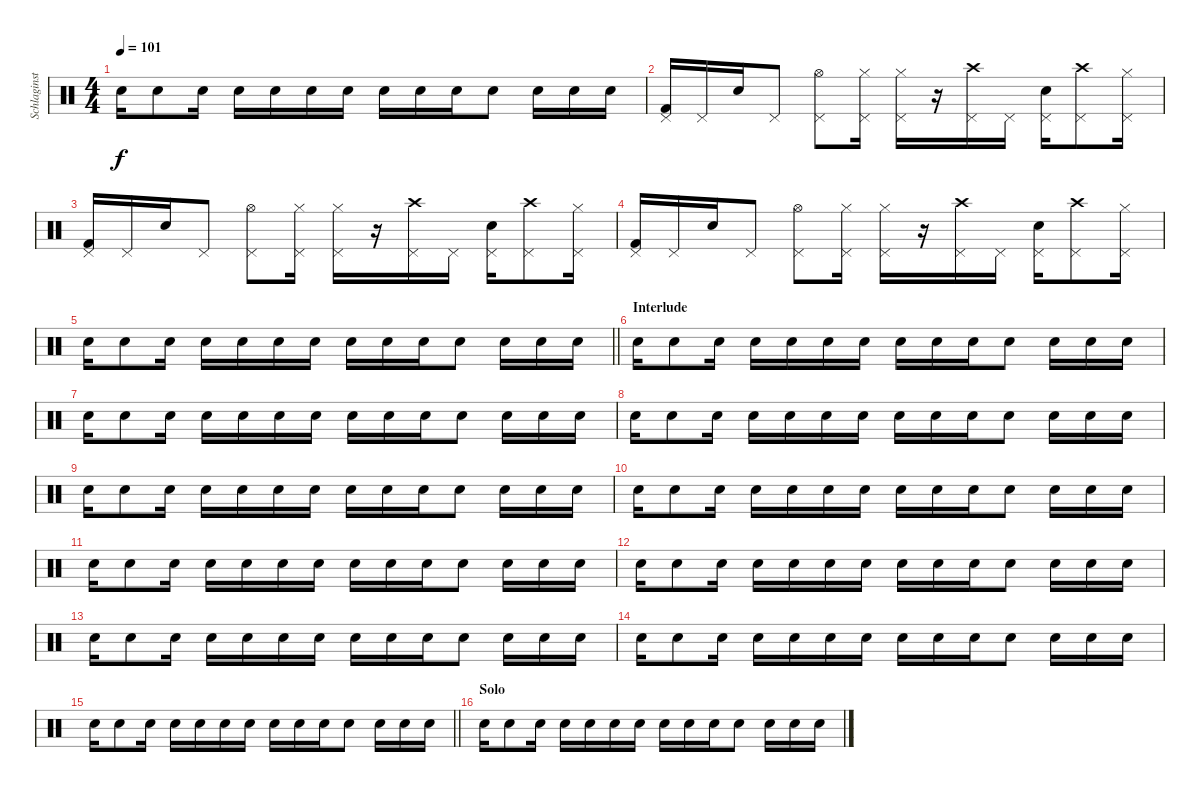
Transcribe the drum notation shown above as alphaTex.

\track ("Schlaginstrumente - Auswahl" "Schlaginst") {instrument percussion}
\staff {score}
\articulation defaults
\ts (4 4)
\tempo 101
\clef neutral
\ks c "Electric Snare (hit)".16{dy f} "Electric Snare (hit)".8 "Electric Snare (hit)".16 "Electric Snare (hit)".16 "Electric Snare (hit)".16 "Electric Snare (hit)".16 "Electric Snare (hit)".16 "Electric Snare (hit)".16 "Electric Snare (hit)".16 "Electric Snare (hit)".16 "Electric Snare (hit)".8 "Electric Snare (hit)".16 "Electric Snare (hit)".16 "Electric Snare (hit)".16
|
("Kick (hit) 2" "Pedal Hi-Hat (hit)").16 "Pedal Hi-Hat (hit)".16 "Electric Snare (hit)".16 "Pedal Hi-Hat (hit)".8 ("Hi-Hat (open)" "Pedal Hi-Hat (hit)").8 ("Hi-Hat (closed)" "Pedal Hi-Hat (hit)").16 ("Hi-Hat (closed)" "Pedal Hi-Hat (hit)").16 r.16 ("Crash high (hit)" "Pedal Hi-Hat (hit)").16 "Pedal Hi-Hat (hit)".16 ("Snare (hit) 2" "Pedal Hi-Hat (hit)").16 ("Crash high (hit)" "Pedal Hi-Hat (hit)").8 ("Hi-Hat (closed)" "Pedal Hi-Hat (hit)").16 |
("Kick (hit) 2" "Pedal Hi-Hat (hit)").16 "Pedal Hi-Hat (hit)".16 "Electric Snare (hit)".16 "Pedal Hi-Hat (hit)".8 ("Hi-Hat (open)" "Pedal Hi-Hat (hit)").8 ("Hi-Hat (closed)" "Pedal Hi-Hat (hit)").16 ("Hi-Hat (closed)" "Pedal Hi-Hat (hit)").16 r.16 ("Crash high (hit)" "Pedal Hi-Hat (hit)").16 "Pedal Hi-Hat (hit)".16 ("Snare (hit) 2" "Pedal Hi-Hat (hit)").16 ("Crash high (hit)" "Pedal Hi-Hat (hit)").8 ("Hi-Hat (closed)" "Pedal Hi-Hat (hit)").16 |
("Kick (hit) 2" "Pedal Hi-Hat (hit)").16 "Pedal Hi-Hat (hit)".16 "Electric Snare (hit)".16 "Pedal Hi-Hat (hit)".8 ("Hi-Hat (open)" "Pedal Hi-Hat (hit)").8 ("Hi-Hat (closed)" "Pedal Hi-Hat (hit)").16 ("Hi-Hat (closed)" "Pedal Hi-Hat (hit)").16 r.16 ("Crash high (hit)" "Pedal Hi-Hat (hit)").16 "Pedal Hi-Hat (hit)".16 ("Snare (hit) 2" "Pedal Hi-Hat (hit)").16 ("Crash high (hit)" "Pedal Hi-Hat (hit)").8 ("Hi-Hat (closed)" "Pedal Hi-Hat (hit)").16 |
\barLineRight lightlight "Electric Snare (hit)".16 "Electric Snare (hit)".8 "Electric Snare (hit)".16 "Electric Snare (hit)".16 "Electric Snare (hit)".16 "Electric Snare (hit)".16 "Electric Snare (hit)".16 "Electric Snare (hit)".16 "Electric Snare (hit)".16 "Electric Snare (hit)".16 "Electric Snare (hit)".8 "Electric Snare (hit)".16 "Electric Snare (hit)".16 "Electric Snare (hit)".16
|
\section ("" "Interlude")
"Electric Snare (hit)".16 "Electric Snare (hit)".8 "Electric Snare (hit)".16 "Electric Snare (hit)".16 "Electric Snare (hit)".16 "Electric Snare (hit)".16 "Electric Snare (hit)".16 "Electric Snare (hit)".16 "Electric Snare (hit)".16 "Electric Snare (hit)".16 "Electric Snare (hit)".8 "Electric Snare (hit)".16 "Electric Snare (hit)".16 "Electric Snare (hit)".16 |
"Electric Snare (hit)".16 "Electric Snare (hit)".8 "Electric Snare (hit)".16 "Electric Snare (hit)".16 "Electric Snare (hit)".16 "Electric Snare (hit)".16 "Electric Snare (hit)".16 "Electric Snare (hit)".16 "Electric Snare (hit)".16 "Electric Snare (hit)".16 "Electric Snare (hit)".8 "Electric Snare (hit)".16 "Electric Snare (hit)".16 "Electric Snare (hit)".16 |
"Electric Snare (hit)".16 "Electric Snare (hit)".8 "Electric Snare (hit)".16 "Electric Snare (hit)".16 "Electric Snare (hit)".16 "Electric Snare (hit)".16 "Electric Snare (hit)".16 "Electric Snare (hit)".16 "Electric Snare (hit)".16 "Electric Snare (hit)".16 "Electric Snare (hit)".8 "Electric Snare (hit)".16 "Electric Snare (hit)".16 "Electric Snare (hit)".16 |
"Electric Snare (hit)".16 "Electric Snare (hit)".8 "Electric Snare (hit)".16 "Electric Snare (hit)".16 "Electric Snare (hit)".16 "Electric Snare (hit)".16 "Electric Snare (hit)".16 "Electric Snare (hit)".16 "Electric Snare (hit)".16 "Electric Snare (hit)".16 "Electric Snare (hit)".8 "Electric Snare (hit)".16 "Electric Snare (hit)".16 "Electric Snare (hit)".16 |
"Electric Snare (hit)".16 "Electric Snare (hit)".8 "Electric Snare (hit)".16 "Electric Snare (hit)".16 "Electric Snare (hit)".16 "Electric Snare (hit)".16 "Electric Snare (hit)".16 "Electric Snare (hit)".16 "Electric Snare (hit)".16 "Electric Snare (hit)".16 "Electric Snare (hit)".8 "Electric Snare (hit)".16 "Electric Snare (hit)".16 "Electric Snare (hit)".16 |
"Electric Snare (hit)".16 "Electric Snare (hit)".8 "Electric Snare (hit)".16 "Electric Snare (hit)".16 "Electric Snare (hit)".16 "Electric Snare (hit)".16 "Electric Snare (hit)".16 "Electric Snare (hit)".16 "Electric Snare (hit)".16 "Electric Snare (hit)".16 "Electric Snare (hit)".8 "Electric Snare (hit)".16 "Electric Snare (hit)".16 "Electric Snare (hit)".16 |
"Electric Snare (hit)".16 "Electric Snare (hit)".8 "Electric Snare (hit)".16 "Electric Snare (hit)".16 "Electric Snare (hit)".16 "Electric Snare (hit)".16 "Electric Snare (hit)".16 "Electric Snare (hit)".16 "Electric Snare (hit)".16 "Electric Snare (hit)".16 "Electric Snare (hit)".8 "Electric Snare (hit)".16 "Electric Snare (hit)".16 "Electric Snare (hit)".16 |
"Electric Snare (hit)".16 "Electric Snare (hit)".8 "Electric Snare (hit)".16 "Electric Snare (hit)".16 "Electric Snare (hit)".16 "Electric Snare (hit)".16 "Electric Snare (hit)".16 "Electric Snare (hit)".16 "Electric Snare (hit)".16 "Electric Snare (hit)".16 "Electric Snare (hit)".8 "Electric Snare (hit)".16 "Electric Snare (hit)".16 "Electric Snare (hit)".16 |
"Electric Snare (hit)".16 "Electric Snare (hit)".8 "Electric Snare (hit)".16 "Electric Snare (hit)".16 "Electric Snare (hit)".16 "Electric Snare (hit)".16 "Electric Snare (hit)".16 "Electric Snare (hit)".16 "Electric Snare (hit)".16 "Electric Snare (hit)".16 "Electric Snare (hit)".8 "Electric Snare (hit)".16 "Electric Snare (hit)".16 "Electric Snare (hit)".16 |
\barLineRight lightlight "Electric Snare (hit)".16 "Electric Snare (hit)".8 "Electric Snare (hit)".16 "Electric Snare (hit)".16 "Electric Snare (hit)".16 "Electric Snare (hit)".16 "Electric Snare (hit)".16 "Electric Snare (hit)".16 "Electric Snare (hit)".16 "Electric Snare (hit)".16 "Electric Snare (hit)".8 "Electric Snare (hit)".16 "Electric Snare (hit)".16 "Electric Snare (hit)".16
|
\section ("" "Solo")
"Electric Snare (hit)".16 "Electric Snare (hit)".8 "Electric Snare (hit)".16 "Electric Snare (hit)".16 "Electric Snare (hit)".16 "Electric Snare (hit)".16 "Electric Snare (hit)".16 "Electric Snare (hit)".16 "Electric Snare (hit)".16 "Electric Snare (hit)".16 "Electric Snare (hit)".8 "Electric Snare (hit)".16 "Electric Snare (hit)".16 "Electric Snare (hit)".16
